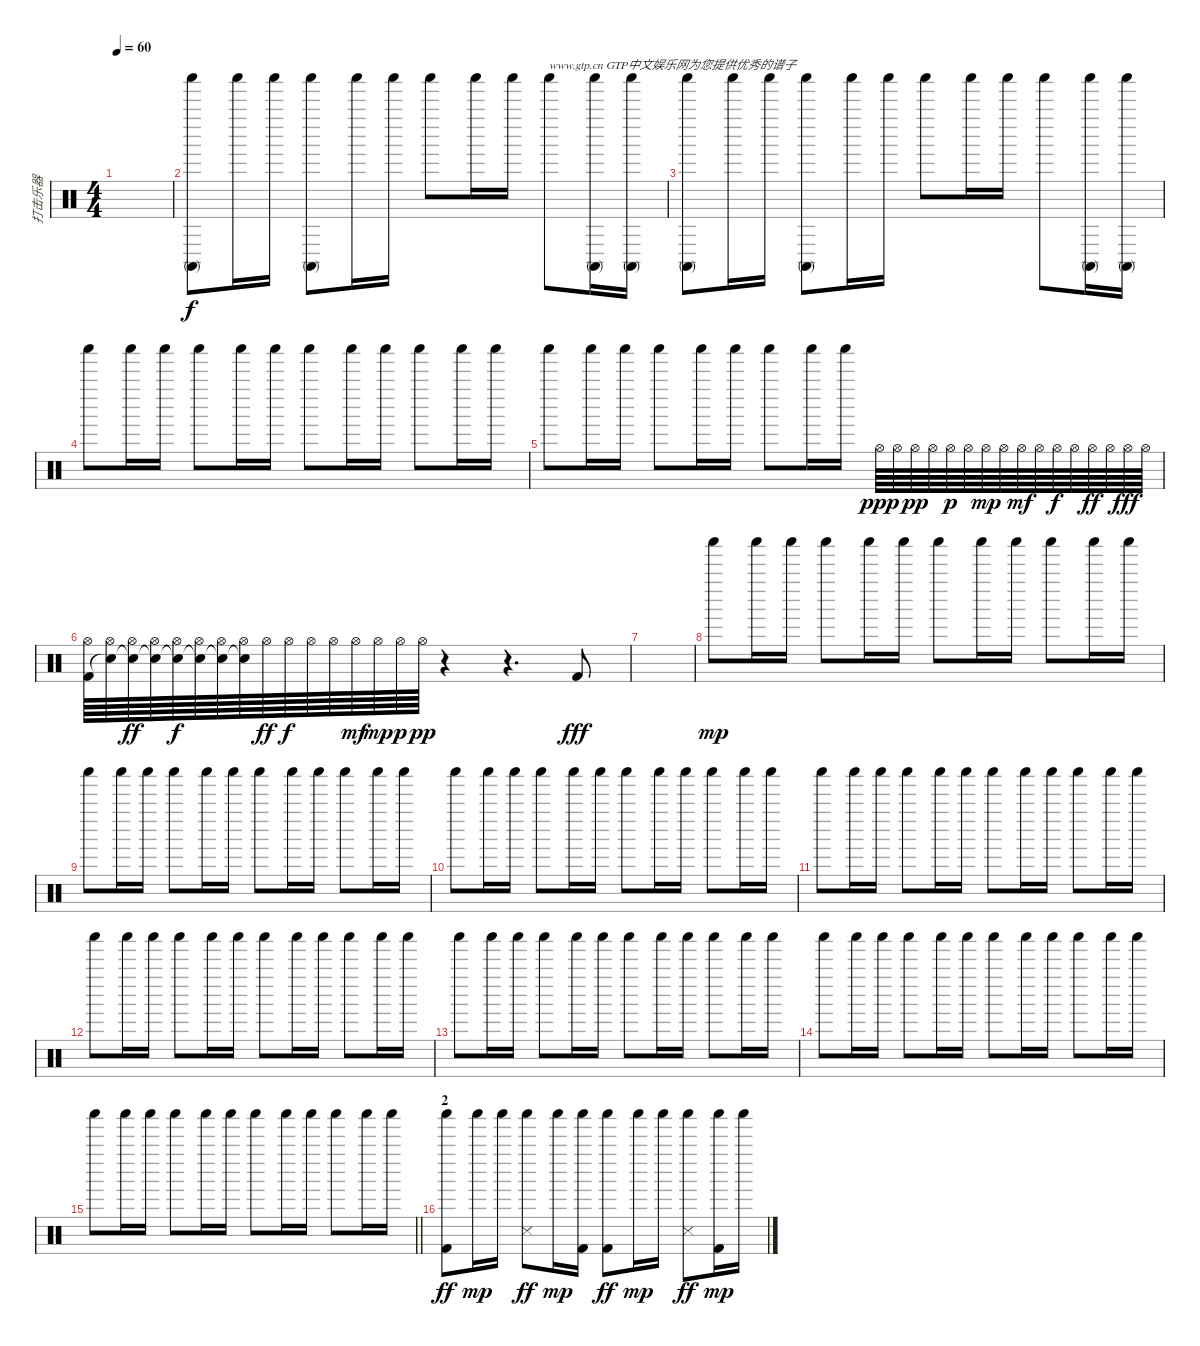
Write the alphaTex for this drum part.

\track ("打击乐器" "打击乐器") {instrument percussion}
\staff {score}
\articulation defaults
\ts (4 4)
\tempo 60
\clef neutral
\ks c
|
("Shaker (hit)" "Conga high (mute)").8{volume 5} "Shaker (hit)".16 "Shaker (hit)".16 ("Shaker (hit)" "Conga high (mute)").8 "Shaker (hit)".16 "Shaker (hit)".16 "Shaker (hit)".8 "Shaker (hit)".16 "Shaker (hit)".16 "Shaker (hit)".8{txt "www.gtp.cn GTP中文娱乐网为您提供优秀的谱子"} ("Shaker (hit)" "Conga high (mute)").16 ("Shaker (hit)" "Conga high (mute)").16 |
("Shaker (hit)" "Conga high (mute)").8 "Shaker (hit)".16 "Shaker (hit)".16 ("Shaker (hit)" "Conga high (mute)").8 "Shaker (hit)".16 "Shaker (hit)".16 "Shaker (hit)".8 "Shaker (hit)".16 "Shaker (hit)".16 "Shaker (hit)".8 ("Shaker (hit)" "Conga high (mute)").16 ("Shaker (hit)" "Conga high (mute)").16 |
"Shaker (hit)".8 "Shaker (hit)".16 "Shaker (hit)".16 "Shaker (hit)".8 "Shaker (hit)".16 "Shaker (hit)".16 "Shaker (hit)".8 "Shaker (hit)".16 "Shaker (hit)".16 "Shaker (hit)".8 "Shaker (hit)".16 "Shaker (hit)".16 |
"Shaker (hit)".8 "Shaker (hit)".16 "Shaker (hit)".16 "Shaker (hit)".8 "Shaker (hit)".16 "Shaker (hit)".16 "Shaker (hit)".8 "Shaker (hit)".16 "Shaker (hit)".16 "Hi-Hat (open)".64{dy ppp} "Hi-Hat (open)".64 "Hi-Hat (open)".64{dy pp} "Hi-Hat (open)".64 "Hi-Hat (open)".64{dy p} "Hi-Hat (open)".64 "Hi-Hat (open)".64{dy mp} "Hi-Hat (open)".64 "Hi-Hat (open)".64{dy mf} "Hi-Hat (open)".64 "Hi-Hat (open)".64{dy f} "Hi-Hat (open)".64 "Hi-Hat (open)".64{dy ff} "Hi-Hat (open)".64 "Hi-Hat (open)".64{dy fff} "Hi-Hat (open)".64 |
("Kick (hit) 2" "Hi-Hat (open)").64 ("Snare (hit)"{t} "Hi-Hat (open)").64 ("Snare (hit)"{t} "Hi-Hat (open)").64{dy ff} ("Snare (hit)"{t} "Hi-Hat (open)").64 ("Snare (hit)"{t} "Hi-Hat (open)").64{dy f} ("Snare (hit)"{t} "Hi-Hat (open)").64 ("Snare (hit)"{t} "Hi-Hat (open)").64 ("Snare (hit)"{t} "Hi-Hat (open)").64 "Hi-Hat (open)".64{dy ff} "Hi-Hat (open)".64{dy f} "Hi-Hat (open)".64 "Hi-Hat (open)".64 "Hi-Hat (open)".64{dy mf} "Hi-Hat (open)".64{dy mp} "Hi-Hat (open)".64{dy p} "Hi-Hat (open)".64{dy pp} r.4 r.4{d} "Kick (hit) 2".8{dy fff} |
|
"Shaker (hit)".8{dy mp} "Shaker (hit)".16 "Shaker (hit)".16 "Shaker (hit)".8 "Shaker (hit)".16 "Shaker (hit)".16 "Shaker (hit)".8 "Shaker (hit)".16 "Shaker (hit)".16 "Shaker (hit)".8 "Shaker (hit)".16 "Shaker (hit)".16 |
"Shaker (hit)".8 "Shaker (hit)".16 "Shaker (hit)".16 "Shaker (hit)".8 "Shaker (hit)".16 "Shaker (hit)".16 "Shaker (hit)".8 "Shaker (hit)".16 "Shaker (hit)".16 "Shaker (hit)".8 "Shaker (hit)".16 "Shaker (hit)".16 |
"Shaker (hit)".8 "Shaker (hit)".16 "Shaker (hit)".16 "Shaker (hit)".8 "Shaker (hit)".16 "Shaker (hit)".16 "Shaker (hit)".8 "Shaker (hit)".16 "Shaker (hit)".16 "Shaker (hit)".8 "Shaker (hit)".16 "Shaker (hit)".16 |
"Shaker (hit)".8 "Shaker (hit)".16 "Shaker (hit)".16 "Shaker (hit)".8 "Shaker (hit)".16 "Shaker (hit)".16 "Shaker (hit)".8 "Shaker (hit)".16 "Shaker (hit)".16 "Shaker (hit)".8 "Shaker (hit)".16 "Shaker (hit)".16 |
"Shaker (hit)".8 "Shaker (hit)".16 "Shaker (hit)".16 "Shaker (hit)".8 "Shaker (hit)".16 "Shaker (hit)".16 "Shaker (hit)".8 "Shaker (hit)".16 "Shaker (hit)".16 "Shaker (hit)".8 "Shaker (hit)".16 "Shaker (hit)".16 |
"Shaker (hit)".8 "Shaker (hit)".16 "Shaker (hit)".16 "Shaker (hit)".8 "Shaker (hit)".16 "Shaker (hit)".16 "Shaker (hit)".8 "Shaker (hit)".16 "Shaker (hit)".16 "Shaker (hit)".8 "Shaker (hit)".16 "Shaker (hit)".16 |
"Shaker (hit)".8 "Shaker (hit)".16 "Shaker (hit)".16 "Shaker (hit)".8 "Shaker (hit)".16 "Shaker (hit)".16 "Shaker (hit)".8 "Shaker (hit)".16 "Shaker (hit)".16 "Shaker (hit)".8 "Shaker (hit)".16 "Shaker (hit)".16 |
\barLineRight lightlight "Shaker (hit)".8 "Shaker (hit)".16 "Shaker (hit)".16 "Shaker (hit)".8 "Shaker (hit)".16 "Shaker (hit)".16 "Shaker (hit)".8 "Shaker (hit)".16 "Shaker (hit)".16 "Shaker (hit)".8 "Shaker (hit)".16 "Shaker (hit)".16
|
\section ("" "2")
("Shaker (hit)" "Kick (hit) 2").8{dy ff} "Shaker (hit)".16{dy mp} "Shaker (hit)".16 ("Shaker (hit)" "Snare (side stick) 3").8{dy ff} "Shaker (hit)".16{dy mp} ("Shaker (hit)" "Kick (hit) 2").16 ("Shaker (hit)" "Kick (hit) 2").8{dy ff} "Shaker (hit)".16{dy mp} "Shaker (hit)".16 ("Shaker (hit)" "Snare (side stick) 3").8{dy ff} ("Shaker (hit)" "Kick (hit) 2").16{dy mp} "Shaker (hit)".16
